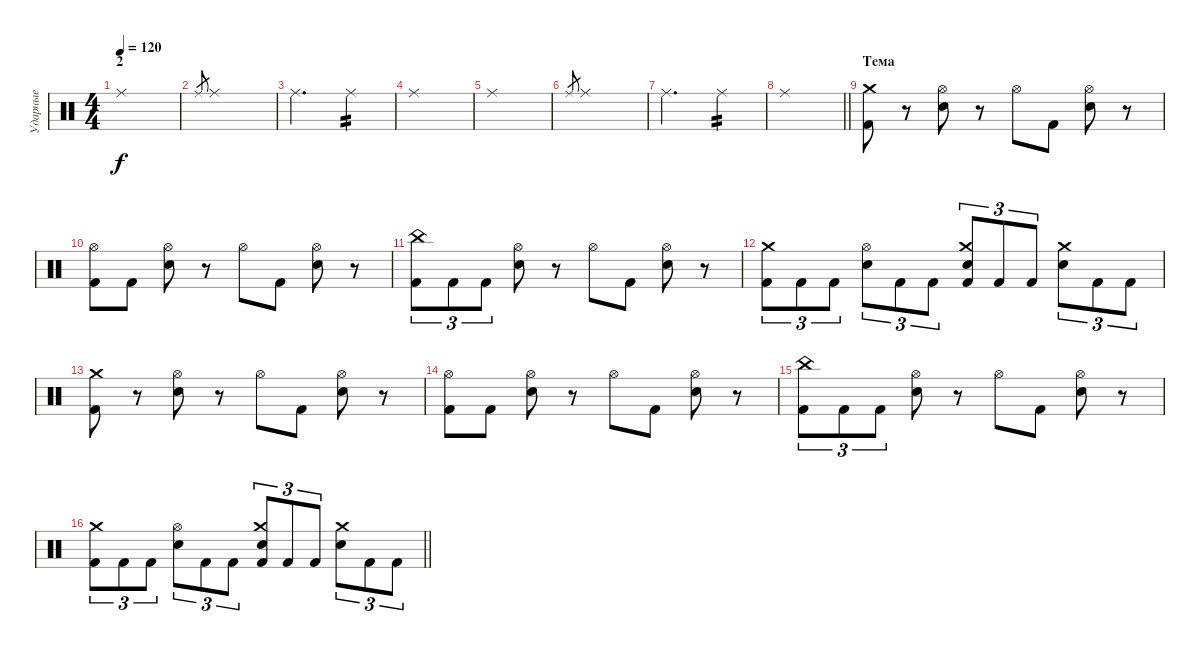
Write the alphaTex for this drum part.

\track ("Ударные" "Ударные") {instrument percussion}
\staff {score}
\articulation defaults
\ts (4 4)
\section ("" "2")
\tempo 120
\clef neutral
\ks c "Ride (middle)".1{dy f}
|
"Ride (middle)".8{gr} "Ride (middle)".1 |
"Ride (middle)".2{d} "Ride (middle)".4{tp 2} |
"Ride (middle)".1 |
"Ride (middle)".1 |
"Ride (middle)".8{gr} "Ride (middle)".1 |
"Ride (middle)".2{d} "Ride (middle)".4{tp 2} |
\barLineRight lightlight "Ride (middle)".1
|
\section ("" "Тема")
("Kick (hit) 2" "Crash medium (hit)").8 r.8 ("Electric Snare (hit)" "Hi-Hat (open)").8 r.8 "Hi-Hat (open)".8 "Kick (hit) 2".8 ("Electric Snare (hit)" "Hi-Hat (open)").8 r.8 |
("Kick (hit) 2" "Hi-Hat (open)").8 "Kick (hit) 2".8 ("Electric Snare (hit)" "Hi-Hat (open)").8 r.8 "Hi-Hat (open)".8 "Kick (hit) 2".8 ("Electric Snare (hit)" "Hi-Hat (open)").8 r.8 |
("Kick (hit) 2" "China (hit)").8{tu (3 2)} "Kick (hit) 2".8{tu (3 2)} "Kick (hit) 2".8{tu (3 2)} ("Electric Snare (hit)" "Hi-Hat (open)").8 r.8 "Hi-Hat (open)".8 "Kick (hit) 2".8 ("Electric Snare (hit)" "Hi-Hat (open)").8 r.8 |
("Kick (hit) 2" "Crash medium (hit)").8{tu (3 2)} "Kick (hit) 2".8{tu (3 2)} "Kick (hit) 2".8{tu (3 2)} ("Electric Snare (hit)" "Hi-Hat (open)").8{tu (3 2)} "Kick (hit) 2".8{tu (3 2)} "Kick (hit) 2".8{tu (3 2)} ("Kick (hit) 2" "Electric Snare (hit)" "Crash medium (hit)").8{tu (3 2)} "Kick (hit) 2".8{tu (3 2)} "Kick (hit) 2".8{tu (3 2)} ("Electric Snare (hit)" "Crash medium (hit)").8{tu (3 2)} "Kick (hit) 2".8{tu (3 2)} "Kick (hit) 2".8{tu (3 2)} |
("Kick (hit) 2" "Crash medium (hit)").8 r.8 ("Electric Snare (hit)" "Hi-Hat (open)").8 r.8 "Hi-Hat (open)".8 "Kick (hit) 2".8 ("Electric Snare (hit)" "Hi-Hat (open)").8 r.8 |
("Kick (hit) 2" "Hi-Hat (open)").8 "Kick (hit) 2".8 ("Electric Snare (hit)" "Hi-Hat (open)").8 r.8 "Hi-Hat (open)".8 "Kick (hit) 2".8 ("Electric Snare (hit)" "Hi-Hat (open)").8 r.8 |
("Kick (hit) 2" "China (hit)").8{tu (3 2)} "Kick (hit) 2".8{tu (3 2)} "Kick (hit) 2".8{tu (3 2)} ("Electric Snare (hit)" "Hi-Hat (open)").8 r.8 "Hi-Hat (open)".8 "Kick (hit) 2".8 ("Electric Snare (hit)" "Hi-Hat (open)").8 r.8 |
\barLineRight lightlight
("Kick (hit) 2" "Crash medium (hit)").8{tu (3 2)} "Kick (hit) 2".8{tu (3 2)} "Kick (hit) 2".8{tu (3 2)} ("Electric Snare (hit)" "Hi-Hat (open)").8{tu (3 2)} "Kick (hit) 2".8{tu (3 2)} "Kick (hit) 2".8{tu (3 2)} ("Kick (hit) 2" "Electric Snare (hit)" "Crash medium (hit)").8{tu (3 2)} "Kick (hit) 2".8{tu (3 2)} "Kick (hit) 2".8{tu (3 2)} ("Electric Snare (hit)" "Crash medium (hit)").8{tu (3 2)} "Kick (hit) 2".8{tu (3 2)} "Kick (hit) 2".8{tu (3 2)}
